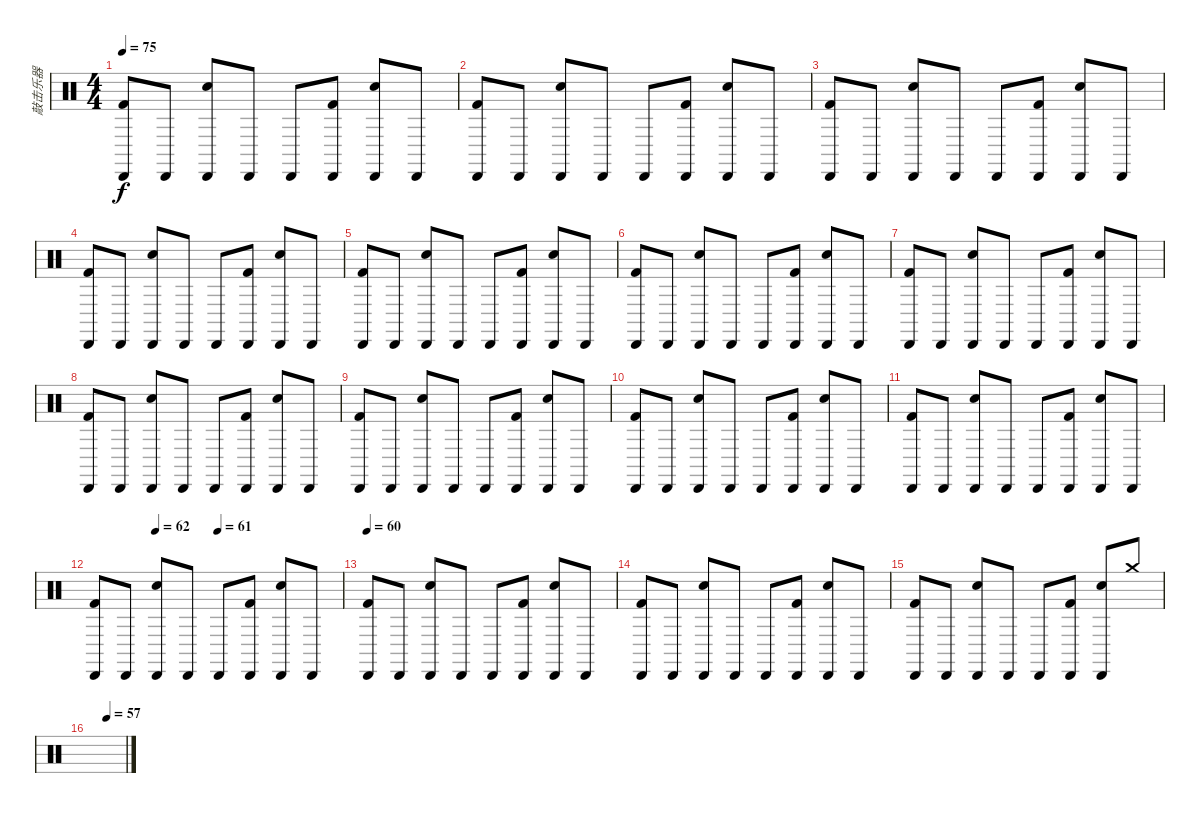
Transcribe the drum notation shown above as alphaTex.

\track ("敲击乐器" "敲击乐器") {instrument percussion}
\staff {score}
\articulation defaults
\ts (4 4)
\tempo 75
\clef neutral
\ks c
("Cabasa (hit)" "Kick (hit) 2").8{dy f} "Cabasa (hit)".8 ("Cabasa (hit)" "Electric Snare (hit)").8 "Cabasa (hit)".8 "Cabasa (hit)".8 ("Cabasa (hit)" "Kick (hit) 2").8 ("Cabasa (hit)" "Electric Snare (hit)").8 "Cabasa (hit)".8 |
("Cabasa (hit)" "Kick (hit) 2").8 "Cabasa (hit)".8 ("Cabasa (hit)" "Electric Snare (hit)").8 "Cabasa (hit)".8 "Cabasa (hit)".8 ("Cabasa (hit)" "Kick (hit) 2").8 ("Cabasa (hit)" "Electric Snare (hit)").8 "Cabasa (hit)".8 |
("Cabasa (hit)" "Kick (hit) 2").8 "Cabasa (hit)".8 ("Cabasa (hit)" "Electric Snare (hit)").8 "Cabasa (hit)".8 "Cabasa (hit)".8 ("Cabasa (hit)" "Kick (hit) 2").8 ("Cabasa (hit)" "Electric Snare (hit)").8 "Cabasa (hit)".8 |
("Cabasa (hit)" "Kick (hit) 2").8 "Cabasa (hit)".8 ("Cabasa (hit)" "Electric Snare (hit)").8 "Cabasa (hit)".8 "Cabasa (hit)".8 ("Cabasa (hit)" "Kick (hit) 2").8 ("Cabasa (hit)" "Electric Snare (hit)").8 "Cabasa (hit)".8 |
("Cabasa (hit)" "Kick (hit) 2").8 "Cabasa (hit)".8 ("Cabasa (hit)" "Electric Snare (hit)").8 "Cabasa (hit)".8 "Cabasa (hit)".8 ("Cabasa (hit)" "Kick (hit) 2").8 ("Cabasa (hit)" "Electric Snare (hit)").8 "Cabasa (hit)".8 |
("Cabasa (hit)" "Kick (hit) 2").8 "Cabasa (hit)".8 ("Cabasa (hit)" "Electric Snare (hit)").8 "Cabasa (hit)".8 "Cabasa (hit)".8 ("Cabasa (hit)" "Kick (hit) 2").8 ("Cabasa (hit)" "Electric Snare (hit)").8 "Cabasa (hit)".8 |
("Cabasa (hit)" "Kick (hit) 2").8 "Cabasa (hit)".8 ("Cabasa (hit)" "Electric Snare (hit)").8 "Cabasa (hit)".8 "Cabasa (hit)".8 ("Cabasa (hit)" "Kick (hit) 2").8 ("Cabasa (hit)" "Electric Snare (hit)").8 "Cabasa (hit)".8 |
("Cabasa (hit)" "Kick (hit) 2").8 "Cabasa (hit)".8 ("Cabasa (hit)" "Electric Snare (hit)").8 "Cabasa (hit)".8 "Cabasa (hit)".8 ("Cabasa (hit)" "Kick (hit) 2").8 ("Cabasa (hit)" "Electric Snare (hit)").8 "Cabasa (hit)".8 |
("Cabasa (hit)" "Kick (hit) 2").8 "Cabasa (hit)".8 ("Cabasa (hit)" "Electric Snare (hit)").8 "Cabasa (hit)".8 "Cabasa (hit)".8 ("Cabasa (hit)" "Kick (hit) 2").8 ("Cabasa (hit)" "Electric Snare (hit)").8 "Cabasa (hit)".8 |
("Cabasa (hit)" "Kick (hit) 2").8 "Cabasa (hit)".8 ("Cabasa (hit)" "Electric Snare (hit)").8 "Cabasa (hit)".8 "Cabasa (hit)".8 ("Cabasa (hit)" "Kick (hit) 2").8 ("Cabasa (hit)" "Electric Snare (hit)").8 "Cabasa (hit)".8 |
("Cabasa (hit)" "Kick (hit) 2").8 "Cabasa (hit)".8 ("Cabasa (hit)" "Electric Snare (hit)").8 "Cabasa (hit)".8 "Cabasa (hit)".8 ("Cabasa (hit)" "Kick (hit) 2").8 ("Cabasa (hit)" "Electric Snare (hit)").8 "Cabasa (hit)".8 |
\tempo (62 0.25)
\tempo (61 0.5)
("Cabasa (hit)" "Kick (hit) 2").8 "Cabasa (hit)".8 ("Cabasa (hit)" "Electric Snare (hit)").8 "Cabasa (hit)".8 "Cabasa (hit)".8 ("Cabasa (hit)" "Kick (hit) 2").8 ("Cabasa (hit)" "Electric Snare (hit)").8 "Cabasa (hit)".8 |
\tempo 60
("Cabasa (hit)" "Kick (hit) 2").8 "Cabasa (hit)".8 ("Cabasa (hit)" "Electric Snare (hit)").8 "Cabasa (hit)".8 "Cabasa (hit)".8 ("Cabasa (hit)" "Kick (hit) 2").8 ("Cabasa (hit)" "Electric Snare (hit)").8 "Cabasa (hit)".8 |
("Cabasa (hit)" "Kick (hit) 2").8 "Cabasa (hit)".8 ("Cabasa (hit)" "Electric Snare (hit)").8 "Cabasa (hit)".8 "Cabasa (hit)".8 ("Cabasa (hit)" "Kick (hit) 2").8 ("Cabasa (hit)" "Electric Snare (hit)").8 "Cabasa (hit)".8 |
("Cabasa (hit)" "Kick (hit) 2").8 "Cabasa (hit)".8 ("Cabasa (hit)" "Electric Snare (hit)").8 "Cabasa (hit)".8 "Cabasa (hit)".8 ("Cabasa (hit)" "Kick (hit) 2").8 ("Cabasa (hit)" "Electric Snare (hit)").8 "Crash medium (hit)".8 |
\tempo (57 0.5)
